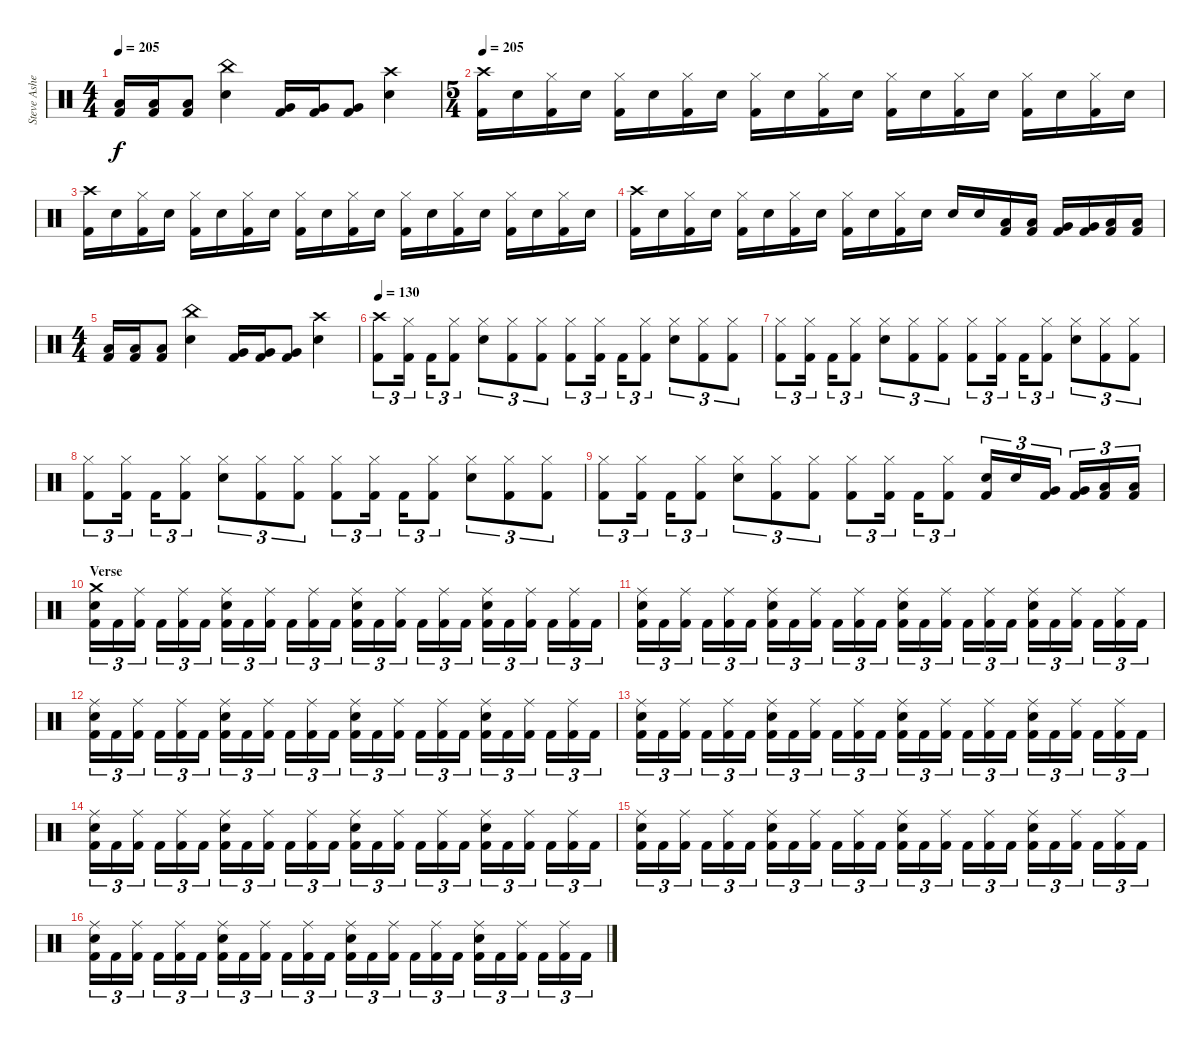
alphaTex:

\track ("Steve Asheim" "Steve Ashe") {instrument percussion}
\staff {score}
\articulation defaults
\ts (4 4)
\tempo 205
\clef neutral
\ks c
("Low Tom (hit)" "Kick (hit) 2").16{dy f volume 14} ("Low Tom (hit)" "Kick (hit) 2").16 ("Low Tom (hit)" "Kick (hit) 2").8 ("China (hit)" "Electric Snare (hit)").4 ("Very Low Tom (hit)" "Kick (hit) 2").16 ("Very Low Tom (hit)" "Kick (hit) 2").16 ("Very Low Tom (hit)" "Kick (hit) 2").8 ("Crash high (hit)" "Electric Snare (hit)").4 |
\ts (5 4)
\tempo 205
("Crash high (hit)" "Kick (hit) 2").16 "Electric Snare (hit)".16 ("Hi-Hat (closed)" "Kick (hit) 2").16 "Electric Snare (hit)".16 ("Hi-Hat (closed)" "Kick (hit) 2").16 "Electric Snare (hit)".16 ("Hi-Hat (closed)" "Kick (hit) 2").16 "Electric Snare (hit)".16 ("Hi-Hat (closed)" "Kick (hit) 2").16 "Electric Snare (hit)".16 ("Hi-Hat (closed)" "Kick (hit) 2").16 "Electric Snare (hit)".16 ("Hi-Hat (closed)" "Kick (hit) 2").16 "Electric Snare (hit)".16 ("Hi-Hat (closed)" "Kick (hit) 2").16 "Electric Snare (hit)".16 ("Hi-Hat (closed)" "Kick (hit) 2").16 "Electric Snare (hit)".16 ("Hi-Hat (closed)" "Kick (hit) 2").16 "Electric Snare (hit)".16 |
("Crash high (hit)" "Kick (hit) 2").16 "Electric Snare (hit)".16 ("Hi-Hat (closed)" "Kick (hit) 2").16 "Electric Snare (hit)".16 ("Hi-Hat (closed)" "Kick (hit) 2").16 "Electric Snare (hit)".16 ("Hi-Hat (closed)" "Kick (hit) 2").16 "Electric Snare (hit)".16 ("Hi-Hat (closed)" "Kick (hit) 2").16 "Electric Snare (hit)".16 ("Hi-Hat (closed)" "Kick (hit) 2").16 "Electric Snare (hit)".16 ("Hi-Hat (closed)" "Kick (hit) 2").16 "Electric Snare (hit)".16 ("Hi-Hat (closed)" "Kick (hit) 2").16 "Electric Snare (hit)".16 ("Hi-Hat (closed)" "Kick (hit) 2").16 "Electric Snare (hit)".16 ("Hi-Hat (closed)" "Kick (hit) 2").16 "Electric Snare (hit)".16 |
("Crash high (hit)" "Kick (hit) 2").16 "Electric Snare (hit)".16 ("Hi-Hat (closed)" "Kick (hit) 2").16 "Electric Snare (hit)".16 ("Hi-Hat (closed)" "Kick (hit) 2").16 "Electric Snare (hit)".16 ("Hi-Hat (closed)" "Kick (hit) 2").16 "Electric Snare (hit)".16 ("Hi-Hat (closed)" "Kick (hit) 2").16 "Electric Snare (hit)".16 ("Hi-Hat (closed)" "Kick (hit) 2").16 "Electric Snare (hit)".16 "Electric Snare (hit)".16 "Electric Snare (hit)".16 ("Low Tom (hit)" "Kick (hit) 2").16 ("Low Tom (hit)" "Kick (hit) 2").16 ("Very Low Tom (hit)" "Kick (hit) 2").16 ("Very Low Tom (hit)" "Kick (hit) 2").16 ("Low Floor Tom (hit)" "Kick (hit) 2").16 ("Low Floor Tom (hit)" "Kick (hit) 2").16 |
\ts (4 4)
("Low Tom (hit)" "Kick (hit) 2").16{volume 14} ("Low Tom (hit)" "Kick (hit) 2").16 ("Low Tom (hit)" "Kick (hit) 2").8 ("China (hit)" "Electric Snare (hit)").4 ("Very Low Tom (hit)" "Kick (hit) 2").16 ("Very Low Tom (hit)" "Kick (hit) 2").16 ("Very Low Tom (hit)" "Kick (hit) 2").8 ("Crash high (hit)" "Electric Snare (hit)").4 |
\tempo 130
("Crash high (hit)" "Kick (hit) 2").8{tu (3 2)} ("Hi-Hat (closed)" "Kick (hit) 2").16{tu (3 2)} "Kick (hit) 2".16{tu (3 2)} ("Hi-Hat (closed)" "Kick (hit) 2").8{tu (3 2)} ("Hi-Hat (closed)" "Electric Snare (hit)").8{tu (3 2)} ("Hi-Hat (closed)" "Kick (hit) 2").8{tu (3 2)} ("Hi-Hat (closed)" "Kick (hit) 2").8{tu (3 2)} ("Hi-Hat (closed)" "Kick (hit) 2").8{tu (3 2)} ("Hi-Hat (closed)" "Kick (hit) 2").16{tu (3 2)} "Kick (hit) 2".16{tu (3 2)} ("Hi-Hat (closed)" "Kick (hit) 2").8{tu (3 2)} ("Hi-Hat (closed)" "Electric Snare (hit)").8{tu (3 2)} ("Hi-Hat (closed)" "Kick (hit) 2").8{tu (3 2)} ("Hi-Hat (closed)" "Kick (hit) 2").8{tu (3 2)} |
("Hi-Hat (closed)" "Kick (hit) 2").8{tu (3 2)} ("Hi-Hat (closed)" "Kick (hit) 2").16{tu (3 2)} "Kick (hit) 2".16{tu (3 2)} ("Hi-Hat (closed)" "Kick (hit) 2").8{tu (3 2)} ("Hi-Hat (closed)" "Electric Snare (hit)").8{tu (3 2)} ("Hi-Hat (closed)" "Kick (hit) 2").8{tu (3 2)} ("Hi-Hat (closed)" "Kick (hit) 2").8{tu (3 2)} ("Hi-Hat (closed)" "Kick (hit) 2").8{tu (3 2)} ("Hi-Hat (closed)" "Kick (hit) 2").16{tu (3 2)} "Kick (hit) 2".16{tu (3 2)} ("Hi-Hat (closed)" "Kick (hit) 2").8{tu (3 2)} ("Hi-Hat (closed)" "Electric Snare (hit)").8{tu (3 2)} ("Hi-Hat (closed)" "Kick (hit) 2").8{tu (3 2)} ("Hi-Hat (closed)" "Kick (hit) 2").8{tu (3 2)} |
("Hi-Hat (closed)" "Kick (hit) 2").8{tu (3 2)} ("Hi-Hat (closed)" "Kick (hit) 2").16{tu (3 2)} "Kick (hit) 2".16{tu (3 2)} ("Hi-Hat (closed)" "Kick (hit) 2").8{tu (3 2)} ("Hi-Hat (closed)" "Electric Snare (hit)").8{tu (3 2)} ("Hi-Hat (closed)" "Kick (hit) 2").8{tu (3 2)} ("Hi-Hat (closed)" "Kick (hit) 2").8{tu (3 2)} ("Hi-Hat (closed)" "Kick (hit) 2").8{tu (3 2)} ("Hi-Hat (closed)" "Kick (hit) 2").16{tu (3 2)} "Kick (hit) 2".16{tu (3 2)} ("Hi-Hat (closed)" "Kick (hit) 2").8{tu (3 2)} ("Hi-Hat (closed)" "Electric Snare (hit)").8{tu (3 2)} ("Hi-Hat (closed)" "Kick (hit) 2").8{tu (3 2)} ("Hi-Hat (closed)" "Kick (hit) 2").8{tu (3 2)} |
("Hi-Hat (closed)" "Kick (hit) 2").8{tu (3 2)} ("Hi-Hat (closed)" "Kick (hit) 2").16{tu (3 2)} "Kick (hit) 2".16{tu (3 2)} ("Hi-Hat (closed)" "Kick (hit) 2").8{tu (3 2)} ("Hi-Hat (closed)" "Electric Snare (hit)").8{tu (3 2)} ("Hi-Hat (closed)" "Kick (hit) 2").8{tu (3 2)} ("Hi-Hat (closed)" "Kick (hit) 2").8{tu (3 2)} ("Hi-Hat (closed)" "Kick (hit) 2").8{tu (3 2)} ("Hi-Hat (closed)" "Kick (hit) 2").16{tu (3 2)} "Kick (hit) 2".16{tu (3 2)} ("Hi-Hat (closed)" "Kick (hit) 2").8{tu (3 2)} ("Electric Snare (hit)" "Kick (hit) 2").16{tu (3 2)} "Electric Snare (hit)".16{tu (3 2)} ("Very Low Tom (hit)" "Kick (hit) 2").16{tu (3 2)} ("Very Low Tom (hit)" "Kick (hit) 2").16{tu (3 2)} ("Low Floor Tom (hit)" "Kick (hit) 2").16{tu (3 2)} ("Low Floor Tom (hit)" "Kick (hit) 2").16{tu (3 2)} |
\section ("" "Verse")
("Crash medium (hit)" "Electric Snare (hit)" "Kick (hit) 2").16{tu (3 2)} "Kick (hit) 2".16{tu (3 2)} ("Ride (middle)" "Kick (hit) 2").16{tu (3 2)} "Kick (hit) 2".16{tu (3 2)} ("Ride (middle)" "Kick (hit) 2").16{tu (3 2)} "Kick (hit) 2".16{tu (3 2)} ("Ride (middle)" "Electric Snare (hit)" "Kick (hit) 2").16{tu (3 2)} "Kick (hit) 2".16{tu (3 2)} ("Ride (middle)" "Kick (hit) 2").16{tu (3 2)} "Kick (hit) 2".16{tu (3 2)} ("Ride (middle)" "Kick (hit) 2").16{tu (3 2)} "Kick (hit) 2".16{tu (3 2)} ("Ride (middle)" "Electric Snare (hit)" "Kick (hit) 2").16{tu (3 2)} "Kick (hit) 2".16{tu (3 2)} ("Ride (middle)" "Kick (hit) 2").16{tu (3 2)} "Kick (hit) 2".16{tu (3 2)} ("Ride (middle)" "Kick (hit) 2").16{tu (3 2)} "Kick (hit) 2".16{tu (3 2)} ("Ride (middle)" "Electric Snare (hit)" "Kick (hit) 2").16{tu (3 2)} "Kick (hit) 2".16{tu (3 2)} ("Ride (middle)" "Kick (hit) 2").16{tu (3 2)} "Kick (hit) 2".16{tu (3 2)} ("Ride (middle)" "Kick (hit) 2").16{tu (3 2)} "Kick (hit) 2".16{tu (3 2)} |
("Ride (middle)" "Electric Snare (hit)" "Kick (hit) 2").16{tu (3 2)} "Kick (hit) 2".16{tu (3 2)} ("Ride (middle)" "Kick (hit) 2").16{tu (3 2)} "Kick (hit) 2".16{tu (3 2)} ("Ride (middle)" "Kick (hit) 2").16{tu (3 2)} "Kick (hit) 2".16{tu (3 2)} ("Ride (middle)" "Electric Snare (hit)" "Kick (hit) 2").16{tu (3 2)} "Kick (hit) 2".16{tu (3 2)} ("Ride (middle)" "Kick (hit) 2").16{tu (3 2)} "Kick (hit) 2".16{tu (3 2)} ("Ride (middle)" "Kick (hit) 2").16{tu (3 2)} "Kick (hit) 2".16{tu (3 2)} ("Ride (middle)" "Electric Snare (hit)" "Kick (hit) 2").16{tu (3 2)} "Kick (hit) 2".16{tu (3 2)} ("Ride (middle)" "Kick (hit) 2").16{tu (3 2)} "Kick (hit) 2".16{tu (3 2)} ("Ride (middle)" "Kick (hit) 2").16{tu (3 2)} "Kick (hit) 2".16{tu (3 2)} ("Ride (middle)" "Electric Snare (hit)" "Kick (hit) 2").16{tu (3 2)} "Kick (hit) 2".16{tu (3 2)} ("Ride (middle)" "Kick (hit) 2").16{tu (3 2)} "Kick (hit) 2".16{tu (3 2)} ("Ride (middle)" "Kick (hit) 2").16{tu (3 2)} "Kick (hit) 2".16{tu (3 2)} |
("Ride (middle)" "Electric Snare (hit)" "Kick (hit) 2").16{tu (3 2)} "Kick (hit) 2".16{tu (3 2)} ("Ride (middle)" "Kick (hit) 2").16{tu (3 2)} "Kick (hit) 2".16{tu (3 2)} ("Ride (middle)" "Kick (hit) 2").16{tu (3 2)} "Kick (hit) 2".16{tu (3 2)} ("Ride (middle)" "Electric Snare (hit)" "Kick (hit) 2").16{tu (3 2)} "Kick (hit) 2".16{tu (3 2)} ("Ride (middle)" "Kick (hit) 2").16{tu (3 2)} "Kick (hit) 2".16{tu (3 2)} ("Ride (middle)" "Kick (hit) 2").16{tu (3 2)} "Kick (hit) 2".16{tu (3 2)} ("Ride (middle)" "Electric Snare (hit)" "Kick (hit) 2").16{tu (3 2)} "Kick (hit) 2".16{tu (3 2)} ("Ride (middle)" "Kick (hit) 2").16{tu (3 2)} "Kick (hit) 2".16{tu (3 2)} ("Ride (middle)" "Kick (hit) 2").16{tu (3 2)} "Kick (hit) 2".16{tu (3 2)} ("Ride (middle)" "Electric Snare (hit)" "Kick (hit) 2").16{tu (3 2)} "Kick (hit) 2".16{tu (3 2)} ("Ride (middle)" "Kick (hit) 2").16{tu (3 2)} "Kick (hit) 2".16{tu (3 2)} ("Ride (middle)" "Kick (hit) 2").16{tu (3 2)} "Kick (hit) 2".16{tu (3 2)} |
("Ride (middle)" "Electric Snare (hit)" "Kick (hit) 2").16{tu (3 2)} "Kick (hit) 2".16{tu (3 2)} ("Ride (middle)" "Kick (hit) 2").16{tu (3 2)} "Kick (hit) 2".16{tu (3 2)} ("Ride (middle)" "Kick (hit) 2").16{tu (3 2)} "Kick (hit) 2".16{tu (3 2)} ("Ride (middle)" "Electric Snare (hit)" "Kick (hit) 2").16{tu (3 2)} "Kick (hit) 2".16{tu (3 2)} ("Ride (middle)" "Kick (hit) 2").16{tu (3 2)} "Kick (hit) 2".16{tu (3 2)} ("Ride (middle)" "Kick (hit) 2").16{tu (3 2)} "Kick (hit) 2".16{tu (3 2)} ("Ride (middle)" "Electric Snare (hit)" "Kick (hit) 2").16{tu (3 2)} "Kick (hit) 2".16{tu (3 2)} ("Ride (middle)" "Kick (hit) 2").16{tu (3 2)} "Kick (hit) 2".16{tu (3 2)} ("Ride (middle)" "Kick (hit) 2").16{tu (3 2)} "Kick (hit) 2".16{tu (3 2)} ("Ride (middle)" "Electric Snare (hit)" "Kick (hit) 2").16{tu (3 2)} "Kick (hit) 2".16{tu (3 2)} ("Ride (middle)" "Kick (hit) 2").16{tu (3 2)} "Kick (hit) 2".16{tu (3 2)} ("Ride (middle)" "Kick (hit) 2").16{tu (3 2)} "Kick (hit) 2".16{tu (3 2)} |
("Ride (middle)" "Electric Snare (hit)" "Kick (hit) 2").16{tu (3 2)} "Kick (hit) 2".16{tu (3 2)} ("Ride (middle)" "Kick (hit) 2").16{tu (3 2)} "Kick (hit) 2".16{tu (3 2)} ("Ride (middle)" "Kick (hit) 2").16{tu (3 2)} "Kick (hit) 2".16{tu (3 2)} ("Ride (middle)" "Electric Snare (hit)" "Kick (hit) 2").16{tu (3 2)} "Kick (hit) 2".16{tu (3 2)} ("Ride (middle)" "Kick (hit) 2").16{tu (3 2)} "Kick (hit) 2".16{tu (3 2)} ("Ride (middle)" "Kick (hit) 2").16{tu (3 2)} "Kick (hit) 2".16{tu (3 2)} ("Ride (middle)" "Electric Snare (hit)" "Kick (hit) 2").16{tu (3 2)} "Kick (hit) 2".16{tu (3 2)} ("Ride (middle)" "Kick (hit) 2").16{tu (3 2)} "Kick (hit) 2".16{tu (3 2)} ("Ride (middle)" "Kick (hit) 2").16{tu (3 2)} "Kick (hit) 2".16{tu (3 2)} ("Ride (middle)" "Electric Snare (hit)" "Kick (hit) 2").16{tu (3 2)} "Kick (hit) 2".16{tu (3 2)} ("Ride (middle)" "Kick (hit) 2").16{tu (3 2)} "Kick (hit) 2".16{tu (3 2)} ("Ride (middle)" "Kick (hit) 2").16{tu (3 2)} "Kick (hit) 2".16{tu (3 2)} |
("Ride (middle)" "Electric Snare (hit)" "Kick (hit) 2").16{tu (3 2)} "Kick (hit) 2".16{tu (3 2)} ("Ride (middle)" "Kick (hit) 2").16{tu (3 2)} "Kick (hit) 2".16{tu (3 2)} ("Ride (middle)" "Kick (hit) 2").16{tu (3 2)} "Kick (hit) 2".16{tu (3 2)} ("Ride (middle)" "Electric Snare (hit)" "Kick (hit) 2").16{tu (3 2)} "Kick (hit) 2".16{tu (3 2)} ("Ride (middle)" "Kick (hit) 2").16{tu (3 2)} "Kick (hit) 2".16{tu (3 2)} ("Ride (middle)" "Kick (hit) 2").16{tu (3 2)} "Kick (hit) 2".16{tu (3 2)} ("Ride (middle)" "Electric Snare (hit)" "Kick (hit) 2").16{tu (3 2)} "Kick (hit) 2".16{tu (3 2)} ("Ride (middle)" "Kick (hit) 2").16{tu (3 2)} "Kick (hit) 2".16{tu (3 2)} ("Ride (middle)" "Kick (hit) 2").16{tu (3 2)} "Kick (hit) 2".16{tu (3 2)} ("Ride (middle)" "Electric Snare (hit)" "Kick (hit) 2").16{tu (3 2)} "Kick (hit) 2".16{tu (3 2)} ("Ride (middle)" "Kick (hit) 2").16{tu (3 2)} "Kick (hit) 2".16{tu (3 2)} ("Ride (middle)" "Kick (hit) 2").16{tu (3 2)} "Kick (hit) 2".16{tu (3 2)} |
("Ride (middle)" "Electric Snare (hit)" "Kick (hit) 2").16{tu (3 2)} "Kick (hit) 2".16{tu (3 2)} ("Ride (middle)" "Kick (hit) 2").16{tu (3 2)} "Kick (hit) 2".16{tu (3 2)} ("Ride (middle)" "Kick (hit) 2").16{tu (3 2)} "Kick (hit) 2".16{tu (3 2)} ("Ride (middle)" "Electric Snare (hit)" "Kick (hit) 2").16{tu (3 2)} "Kick (hit) 2".16{tu (3 2)} ("Ride (middle)" "Kick (hit) 2").16{tu (3 2)} "Kick (hit) 2".16{tu (3 2)} ("Ride (middle)" "Kick (hit) 2").16{tu (3 2)} "Kick (hit) 2".16{tu (3 2)} ("Ride (middle)" "Electric Snare (hit)" "Kick (hit) 2").16{tu (3 2)} "Kick (hit) 2".16{tu (3 2)} ("Ride (middle)" "Kick (hit) 2").16{tu (3 2)} "Kick (hit) 2".16{tu (3 2)} ("Ride (middle)" "Kick (hit) 2").16{tu (3 2)} "Kick (hit) 2".16{tu (3 2)} ("Ride (middle)" "Electric Snare (hit)" "Kick (hit) 2").16{tu (3 2)} "Kick (hit) 2".16{tu (3 2)} ("Ride (middle)" "Kick (hit) 2").16{tu (3 2)} "Kick (hit) 2".16{tu (3 2)} ("Ride (middle)" "Kick (hit) 2").16{tu (3 2)} "Kick (hit) 2".16{tu (3 2)}
